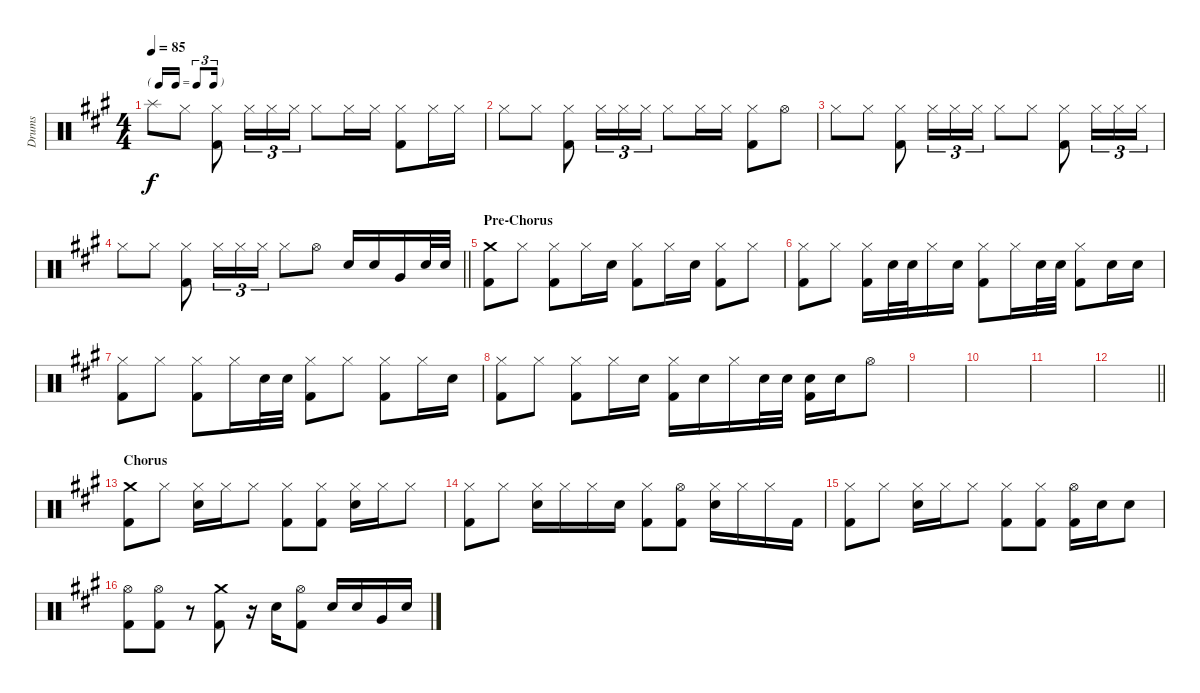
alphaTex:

\track ("Drums" "Drums") {instrument percussion}
\staff {score}
\articulation defaults
\ts (4 4)
\tf triplet16th
\tempo 85
\clef neutral
\ks a "Splash (hit)".8{dy f} "Hi-Hat (closed)".8
("Hi-Hat (closed)" "Kick (hit) 2").8 "Hi-Hat (closed)".16{tu (3 2)} "Hi-Hat (closed)".16{tu (3 2)} "Hi-Hat (closed)".16{tu (3 2)} "Hi-Hat (closed)".8 "Hi-Hat (closed)".16 "Hi-Hat (closed)".16 ("Hi-Hat (closed)" "Kick (hit) 2").8 "Hi-Hat (closed)".16 "Hi-Hat (closed)".16 |
"Hi-Hat (closed)".8 "Hi-Hat (closed)".8 ("Hi-Hat (closed)" "Kick (hit) 2").8 "Hi-Hat (closed)".16{tu (3 2)} "Hi-Hat (closed)".16{tu (3 2)} "Hi-Hat (closed)".16{tu (3 2)} "Hi-Hat (closed)".8 "Hi-Hat (closed)".16 "Hi-Hat (closed)".16 ("Hi-Hat (closed)" "Kick (hit) 2").8 "Hi-Hat (open)".8 |
"Hi-Hat (closed)".8 "Hi-Hat (closed)".8 ("Hi-Hat (closed)" "Kick (hit) 2").8 "Hi-Hat (closed)".16{tu (3 2)} "Hi-Hat (closed)".16{tu (3 2)} "Hi-Hat (closed)".16{tu (3 2)} "Hi-Hat (closed)".8 "Hi-Hat (closed)".8 ("Hi-Hat (closed)" "Kick (hit) 2").8 "Hi-Hat (closed)".16{tu (3 2)} "Hi-Hat (closed)".16{tu (3 2)} "Hi-Hat (closed)".16{tu (3 2)} |
\barLineRight lightlight "Hi-Hat (closed)".8 "Hi-Hat (closed)".8
("Hi-Hat (closed)" "Kick (hit) 2").8 "Hi-Hat (closed)".16{tu (3 2)} "Hi-Hat (closed)".16{tu (3 2)} "Hi-Hat (closed)".16{tu (3 2)} "Hi-Hat (closed)".8 "Hi-Hat (open)".8 "Snare (hit) 2".16 "Snare (hit) 2".16 "Very Low Tom (hit)".16 "Snare (hit) 2".32 "Snare (hit) 2".32 |
\section ("" "Pre-Chorus")
("Crash medium (hit)" "Kick (hit) 2").8 "Hi-Hat (closed)".8 ("Hi-Hat (closed)" "Kick (hit) 2").8 "Hi-Hat (closed)".16 "Snare (hit) 2".16 ("Hi-Hat (closed)" "Kick (hit) 2").8 "Hi-Hat (closed)".16 "Snare (hit) 2".16 ("Hi-Hat (closed)" "Kick (hit) 2").8 "Hi-Hat (closed)".8 |
("Hi-Hat (closed)" "Kick (hit) 2").8 "Hi-Hat (closed)".8 ("Hi-Hat (closed)" "Kick (hit) 2").16 "Snare (hit) 2".32 "Snare (hit) 2".32 "Hi-Hat (closed)".16 "Snare (hit) 2".16 ("Hi-Hat (closed)" "Kick (hit) 2").8 "Hi-Hat (closed)".16 "Snare (hit) 2".32 "Snare (hit) 2".32 ("Hi-Hat (closed)" "Kick (hit) 2").8 "Snare (hit) 2".16 "Snare (hit) 2".16 |
("Hi-Hat (closed)" "Kick (hit) 2").8 "Hi-Hat (closed)".8 ("Hi-Hat (closed)" "Kick (hit) 2").8 "Hi-Hat (closed)".16 "Snare (hit) 2".32 "Snare (hit) 2".32 ("Hi-Hat (closed)" "Kick (hit) 2").8 "Hi-Hat (closed)".8 ("Hi-Hat (closed)" "Kick (hit) 2").8 "Hi-Hat (closed)".16 "Snare (hit) 2".16 |
("Hi-Hat (closed)" "Kick (hit) 2").8 "Hi-Hat (closed)".8 ("Hi-Hat (closed)" "Kick (hit) 2").8 "Hi-Hat (closed)".16 "Snare (hit) 2".16 ("Hi-Hat (closed)" "Kick (hit) 2").16 "Snare (hit) 2".16 "Hi-Hat (closed)".16 "Snare (hit) 2".32 "Snare (hit) 2".32 ("Snare (hit) 2" "Kick (hit) 2").16 "Snare (hit) 2".16 "Hi-Hat (open)".8 |
|
|
|
\barLineRight lightlight
|
\section ("" "Chorus")
("Crash medium (hit)" "Kick (hit) 2").8 "Hi-Hat (closed)".8 ("Hi-Hat (closed)" "Snare (hit) 2").16 "Hi-Hat (closed)".16 "Hi-Hat (closed)".8 ("Hi-Hat (closed)" "Kick (hit) 2").8 ("Hi-Hat (closed)" "Kick (hit) 2").8 ("Hi-Hat (closed)" "Snare (hit) 2").16 "Hi-Hat (closed)".16 "Hi-Hat (closed)".8 |
("Hi-Hat (closed)" "Kick (hit) 2").8 "Hi-Hat (closed)".8 ("Hi-Hat (closed)" "Snare (hit) 2").16 "Hi-Hat (closed)".16 "Hi-Hat (closed)".16 "Snare (hit) 2".16 ("Hi-Hat (closed)" "Kick (hit) 2").8 ("Hi-Hat (open)" "Kick (hit) 2").8 ("Hi-Hat (closed)" "Snare (hit) 2").16 "Hi-Hat (closed)".16 "Hi-Hat (closed)".16 "Kick (hit) 2".16 |
("Hi-Hat (closed)" "Kick (hit) 2").8 "Hi-Hat (closed)".8 ("Hi-Hat (closed)" "Snare (hit) 2").16 "Hi-Hat (closed)".16 "Hi-Hat (closed)".8 ("Hi-Hat (closed)" "Kick (hit) 2").8 ("Hi-Hat (closed)" "Kick (hit) 2").8 ("Hi-Hat (open)" "Kick (hit) 2").16 "Snare (hit) 2".16 "Snare (hit) 2".8 |
("Hi-Hat (open)" "Kick (hit) 2").8 ("Hi-Hat (open)" "Kick (hit) 2").8 r.8 ("Crash medium (hit)" "Kick (hit) 2").8 r.16 "Snare (hit) 2".16 ("Hi-Hat (open)" "Kick (hit) 2").8 "Snare (hit) 2".16 "Snare (hit) 2".16 "Very Low Tom (hit)".16 "Snare (hit) 2".16
